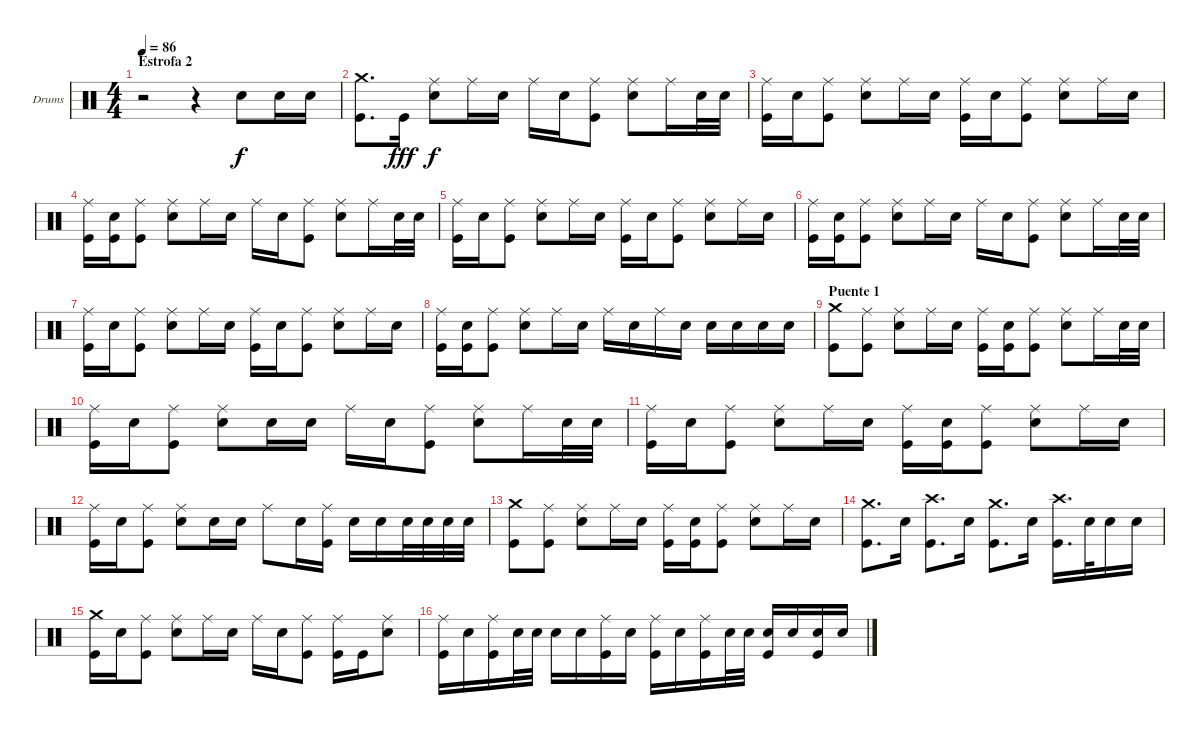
\defaultSystemsLayout 4
\bracketExtendMode groupsimilarinstruments
\firstSystemTrackNameOrientation horizontal
\otherSystemsTrackNameOrientation horizontal
\track ("Drumkit" "Drums") {instrument percussion}
\staff {score}
\articulation defaults
\ts (4 4)
\section ("" "Estrofa 2")
\tempo 86
\clef neutral
\ks c
r.2{dy f} r.4 "Snare (hit) 2".8 "Snare (hit) 2".16 "Snare (hit) 2".16 |
("Crash medium (hit)" "Kick (hit)").8{d} "Kick (hit)".16{dy fff} ("Ride (middle)" "Snare (hit) 2").8{dy f} "Ride (middle)".16 "Snare (hit) 2".16 "Ride (middle)".16 "Snare (hit) 2".16 ("Ride (middle)" "Kick (hit)").8 ("Ride (middle)" "Snare (hit) 2").8 "Ride (middle)".16 "Snare (hit) 2".32 "Snare (hit) 2".32 |
("Ride (middle)" "Kick (hit)").16 "Snare (hit) 2".16 ("Ride (middle)" "Kick (hit)").8 ("Ride (middle)" "Snare (hit) 2").8 "Ride (middle)".16 "Snare (hit) 2".16 ("Ride (middle)" "Kick (hit)").16 "Snare (hit) 2".16 ("Ride (middle)" "Kick (hit)").8 ("Ride (middle)" "Snare (hit) 2").8 "Ride (middle)".16 "Snare (hit) 2".16 |
("Ride (middle)" "Kick (hit)").16 ("Snare (hit) 2" "Kick (hit)").16 ("Ride (middle)" "Kick (hit)").8 ("Ride (middle)" "Snare (hit) 2").8 "Ride (middle)".16 "Snare (hit) 2".16 "Ride (middle)".16 "Snare (hit) 2".16 ("Ride (middle)" "Kick (hit)").8 ("Ride (middle)" "Snare (hit) 2").8 "Ride (middle)".16 "Snare (hit) 2".32 "Snare (hit) 2".32 |
("Ride (middle)" "Kick (hit)").16 "Snare (hit) 2".16 ("Ride (middle)" "Kick (hit)").8 ("Ride (middle)" "Snare (hit) 2").8 "Ride (middle)".16 "Snare (hit) 2".16 ("Ride (middle)" "Kick (hit)").16 "Snare (hit) 2".16 ("Ride (middle)" "Kick (hit)").8 ("Ride (middle)" "Snare (hit) 2").8 "Ride (middle)".16 "Snare (hit) 2".16 |
("Ride (middle)" "Kick (hit)").16 ("Snare (hit) 2" "Kick (hit)").16 ("Ride (middle)" "Kick (hit)").8 ("Ride (middle)" "Snare (hit) 2").8 "Ride (middle)".16 "Snare (hit) 2".16 "Ride (middle)".16 "Snare (hit) 2".16 ("Ride (middle)" "Kick (hit)").8 ("Ride (middle)" "Snare (hit) 2").8 "Ride (middle)".16 "Snare (hit) 2".32 "Snare (hit) 2".32 |
("Ride (middle)" "Kick (hit)").16 "Snare (hit) 2".16 ("Ride (middle)" "Kick (hit)").8 ("Ride (middle)" "Snare (hit) 2").8 "Ride (middle)".16 "Snare (hit) 2".16 ("Ride (middle)" "Kick (hit)").16 "Snare (hit) 2".16 ("Ride (middle)" "Kick (hit)").8 ("Ride (middle)" "Snare (hit) 2").8 "Ride (middle)".16 "Snare (hit) 2".16 |
\scale
0.472222 ("Ride (middle)" "Kick (hit)").16 ("Snare (hit) 2" "Kick (hit)").16 ("Ride (middle)" "Kick (hit)").8 ("Ride (middle)" "Snare (hit) 2").8 "Ride (middle)".16 "Snare (hit) 2".16 "Ride (middle)".16 "Snare (hit) 2".16 "Ride (middle)".16 "Snare (hit) 2".16 "Snare (hit) 2".16 "Snare (hit) 2".16 "Snare (hit) 2".16 "Snare (hit) 2".16 |
\section ("" "Puente 1")
\scale
0.263889 ("Crash medium (hit)" "Kick (hit)").8 ("Ride (middle)" "Kick (hit)").8 ("Ride (middle)" "Snare (hit) 2").8 "Ride (middle)".16 "Snare (hit) 2".16 ("Ride (middle)" "Kick (hit)").16 ("Snare (hit) 2" "Kick (hit)").16 ("Ride (middle)" "Kick (hit)").8 ("Ride (middle)" "Snare (hit) 2").8 "Ride (middle)".16 "Snare (hit) 2".32 "Snare (hit) 2".32 |
\scale
0.263889 ("Ride (middle)" "Kick (hit)").16 "Snare (hit) 2".16 ("Ride (middle)" "Kick (hit)").8 ("Ride (middle)" "Snare (hit) 2").8 "Snare (hit) 2".16 "Snare (hit) 2".16 "Ride (middle)".16 "Snare (hit) 2".16 ("Ride (middle)" "Kick (hit)").8 ("Ride (middle)" "Snare (hit) 2").8 "Ride (middle)".16 "Snare (hit) 2".32 "Snare (hit) 2".32 |
\scale
0.333333 ("Ride (middle)" "Kick (hit)").16 "Snare (hit) 2".16 ("Ride (middle)" "Kick (hit)").8 ("Ride (middle)" "Snare (hit) 2").8 "Ride (middle)".16 "Snare (hit) 2".16 ("Ride (middle)" "Kick (hit)").16 ("Snare (hit) 2" "Kick (hit)").16 ("Ride (middle)" "Kick (hit)").8 ("Ride (middle)" "Snare (hit) 2").8 "Ride (middle)".16 "Snare (hit) 2".16 |
\scale
0.333333 ("Ride (middle)" "Kick (hit)").16 "Snare (hit) 2".16 ("Ride (middle)" "Kick (hit)").8 ("Ride (middle)" "Snare (hit) 2").8 "Snare (hit) 2".16 "Snare (hit) 2".16 "Ride (middle)".8 "Snare (hit) 2".16 ("Ride (middle)" "Kick (hit)").16 "Snare (hit) 2".16 "Snare (hit) 2".16 "Snare (hit) 2".32 "Snare (hit) 2".32 "Snare (hit) 2".32 "Snare (hit) 2".32 |
\scale
0.333333 ("Crash medium (hit)" "Kick (hit)").8 ("Ride (middle)" "Kick (hit)").8 ("Ride (middle)" "Snare (hit) 2").8 "Ride (middle)".16 "Snare (hit) 2".16 ("Ride (middle)" "Kick (hit)").16 ("Snare (hit) 2" "Kick (hit)").16 ("Ride (middle)" "Kick (hit)").8 ("Ride (middle)" "Snare (hit) 2").8 "Ride (middle)".16 "Snare (hit) 2".16 |
("Crash medium (hit)" "Kick (hit)").8{d} "Snare (hit) 2".16 ("Crash high (hit)" "Kick (hit)").8{d} "Snare (hit) 2".16 ("Crash medium (hit)" "Kick (hit)").8{d} "Snare (hit) 2".16 ("Crash high (hit)" "Kick (hit)").16{d} "Snare (hit) 2".32 "Snare (hit) 2".16 "Snare (hit) 2".16 |
("Crash medium (hit)" "Kick (hit)").16 "Snare (hit) 2".16 ("Ride (middle)" "Kick (hit)").8 ("Ride (middle)" "Snare (hit) 2").8 "Ride (middle)".16 "Snare (hit) 2".16 "Ride (middle)".16 "Snare (hit) 2".16 ("Ride (middle)" "Kick (hit)").8 ("Ride (middle)" "Kick (hit)").16 "Kick (hit)".16 ("Ride (middle)" "Snare (hit) 2").8 |
("Ride (middle)" "Kick (hit)").16 "Snare (hit) 2".16 ("Ride (middle)" "Kick (hit)").16 "Snare (hit) 2".32 "Snare (hit) 2".32 "Snare (hit) 2".16 "Snare (hit) 2".16 ("Ride (middle)" "Kick (hit)").16 "Snare (hit) 2".16 ("Ride (middle)" "Kick (hit)").16 "Snare (hit) 2".16 ("Ride (middle)" "Kick (hit)").16 "Snare (hit) 2".32 "Snare (hit) 2".32 ("Snare (hit) 2" "Kick (hit)").16 "Snare (hit) 2".16 ("Snare (hit) 2" "Kick (hit)").16 "Snare (hit) 2".16
